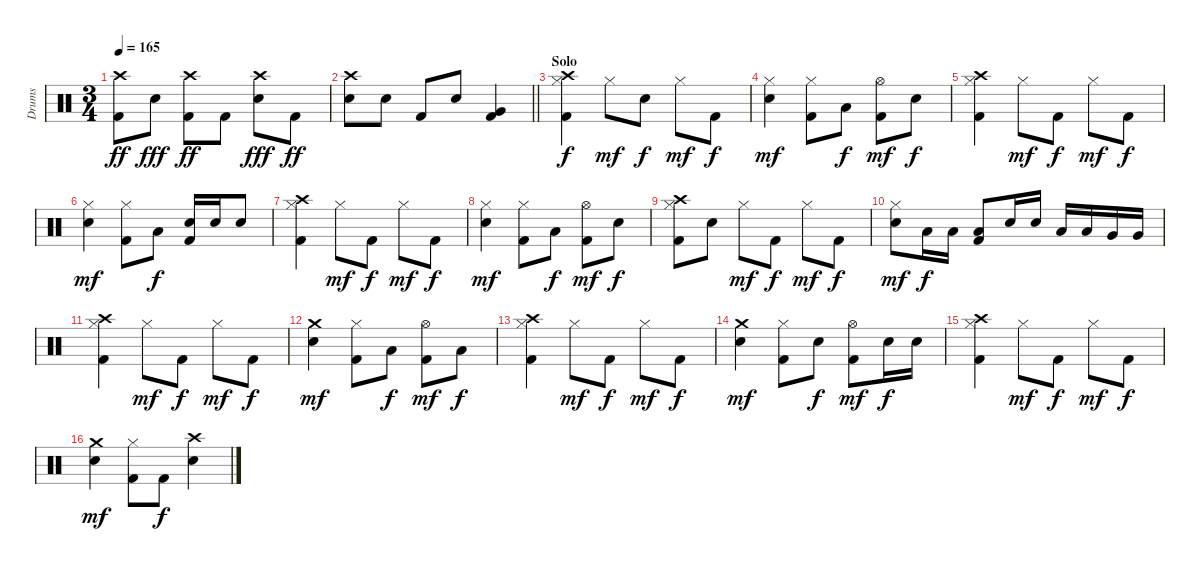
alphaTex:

\track ("Drums" "Drums") {instrument percussion}
\staff {score}
\articulation defaults
\ts (3 4)
\tempo 165
\clef neutral
\ks c
("Crash high (hit)" "Kick (hit) 2").8{dy ff} "Snare (hit) 2".8{dy fff} ("Crash high (hit)" "Kick (hit) 2").8{dy ff} "Kick (hit) 2".8 ("Crash high (hit)" "Snare (hit) 2").8{dy fff} "Kick (hit) 2".8{dy ff} |
\barLineRight lightlight
("Crash high (hit)" "Snare (hit) 2").8 "Snare (hit) 2".8 "Kick (hit) 2".8 "Snare (hit) 2".8 ("Very Low Tom (hit)" "Kick (hit) 2").4 |
\section ("" "Solo")
("Crash high (hit)" "Hi-Hat (closed)" "Kick (hit) 2").4{dy f} "Hi-Hat (closed)".8{dy mf} "Snare (hit) 2".8{dy f} "Hi-Hat (closed)".8{dy mf} "Kick (hit) 2".8{dy f} |
("Hi-Hat (closed)" "Snare (hit) 2").4{dy mf} ("Hi-Hat (closed)" "Kick (hit) 2").8 "Low Tom (hit)".8{dy f} ("Hi-Hat (open)" "Kick (hit) 2").8{dy mf} "Snare (hit) 2".8{dy f} |
("Crash high (hit)" "Hi-Hat (closed)" "Kick (hit) 2").4 "Hi-Hat (closed)".8{dy mf} "Kick (hit) 2".8{dy f} "Hi-Hat (closed)".8{dy mf} "Kick (hit) 2".8{dy f} |
("Hi-Hat (closed)" "Snare (hit) 2").4{dy mf} ("Hi-Hat (closed)" "Kick (hit) 2").8 "Low Tom (hit)".8{dy f} ("Snare (hit) 2" "Kick (hit) 2").16 "Snare (hit) 2".16 "Snare (hit) 2".8 |
("Crash high (hit)" "Hi-Hat (closed)" "Kick (hit) 2").4 "Hi-Hat (closed)".8{dy mf} "Kick (hit) 2".8{dy f} "Hi-Hat (closed)".8{dy mf} "Kick (hit) 2".8{dy f} |
("Hi-Hat (closed)" "Snare (hit) 2").4{dy mf} ("Hi-Hat (closed)" "Kick (hit) 2").8 "Low Tom (hit)".8{dy f} ("Hi-Hat (open)" "Kick (hit) 2").8{dy mf} "Snare (hit) 2".8{dy f} |
("Crash high (hit)" "Hi-Hat (closed)" "Kick (hit) 2").8 "Snare (hit) 2".8 "Hi-Hat (closed)".8{dy mf} "Kick (hit) 2".8{dy f} "Hi-Hat (closed)".8{dy mf} "Kick (hit) 2".8{dy f} |
("Hi-Hat (closed)" "Snare (hit) 2").8{dy mf} "Low Tom (hit)".16{dy f} "Low Tom (hit)".16 ("Low Tom (hit)" "Kick (hit) 2").8 "Snare (hit) 2".16 "Snare (hit) 2".16 "Low Tom (hit)".16 "Low Tom (hit)".16 "Very Low Tom (hit)".16 "Very Low Tom (hit)".16 |
("Crash high (hit)" "Hi-Hat (closed)" "Kick (hit) 2").4 "Hi-Hat (closed)".8{dy mf} "Kick (hit) 2".8{dy f} "Hi-Hat (closed)".8{dy mf} "Kick (hit) 2".8{dy f} |
("Crash medium (hit)" "Snare (hit) 2").4{dy mf} ("Hi-Hat (closed)" "Kick (hit) 2").8 "Low Tom (hit)".8{dy f} ("Hi-Hat (open)" "Kick (hit) 2").8{dy mf} "Low Tom (hit)".8{dy f} |
("Crash high (hit)" "Hi-Hat (closed)" "Kick (hit) 2").4 "Hi-Hat (closed)".8{dy mf} "Kick (hit) 2".8{dy f} "Hi-Hat (closed)".8{dy mf} "Kick (hit) 2".8{dy f} |
("Crash medium (hit)" "Snare (hit) 2").4{dy mf} ("Hi-Hat (closed)" "Kick (hit) 2").8 "Snare (hit) 2".8{dy f} ("Hi-Hat (open)" "Kick (hit) 2").8{dy mf} "Snare (hit) 2".16{dy f} "Snare (hit) 2".16 |
("Crash high (hit)" "Hi-Hat (closed)" "Kick (hit) 2").4 "Hi-Hat (closed)".8{dy mf} "Kick (hit) 2".8{dy f} "Hi-Hat (closed)".8{dy mf} "Kick (hit) 2".8{dy f} |
("Crash medium (hit)" "Snare (hit) 2").4{dy mf} ("Hi-Hat (closed)" "Kick (hit) 2").8 "Kick (hit) 2".8{dy f} ("Crash high (hit)" "Snare (hit) 2").4
